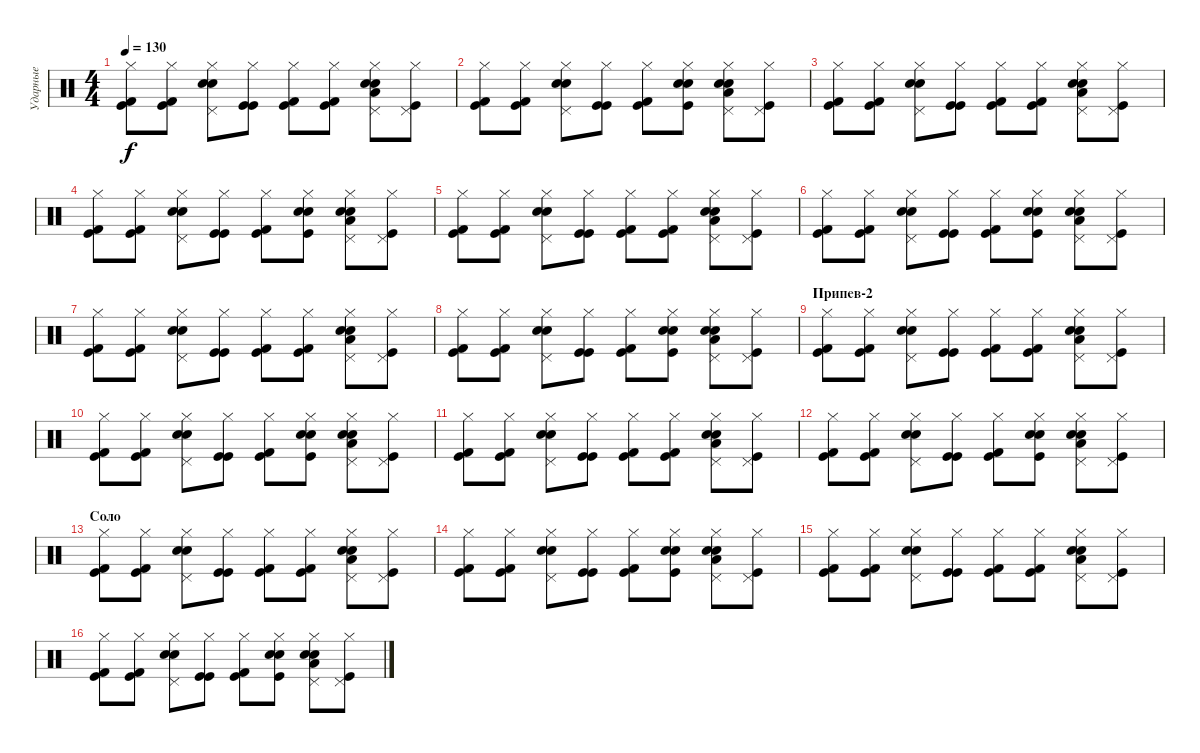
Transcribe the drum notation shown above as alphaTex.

\track ("Ударные" "Ударные") {instrument percussion}
\staff {score}
\articulation defaults
\ts (4 4)
\tempo 130
\clef neutral
\ks c
("Kick (hit)" "Kick (hit) 2" "Hi-Hat (closed)").8{dy f} ("Kick (hit)" "Kick (hit) 2" "Hi-Hat (closed)").8 ("Electric Snare (hit)" "Pedal Hi-Hat (hit)" "Hi-Hat (closed)" "Snare (hit) 2").8 ("Kick (hit)" "Kick (hit)" "Hi-Hat (closed)").8 ("Kick (hit)" "Kick (hit) 2" "Hi-Hat (closed)").8 ("Kick (hit)" "Kick (hit) 2" "Hi-Hat (closed)").8 ("Low Tom (hit)" "Electric Snare (hit)" "Pedal Hi-Hat (hit)" "Hi-Hat (closed)" "Snare (hit) 2").8 ("Pedal Hi-Hat (hit)" "Kick (hit)" "Hi-Hat (closed)").8 |
("Kick (hit)" "Kick (hit) 2" "Hi-Hat (closed)").8 ("Kick (hit)" "Kick (hit) 2" "Hi-Hat (closed)").8 ("Snare (hit) 2" "Electric Snare (hit)" "Pedal Hi-Hat (hit)" "Hi-Hat (closed)").8 ("Kick (hit)" "Kick (hit)" "Hi-Hat (closed)").8 ("Kick (hit)" "Kick (hit) 2" "Hi-Hat (closed)").8 ("Kick (hit)" "Electric Snare (hit)" "Hi-Hat (closed)" "Snare (hit) 2").8 ("Low Tom (hit)" "Electric Snare (hit)" "Pedal Hi-Hat (hit)" "Hi-Hat (closed)" "Snare (hit) 2").8 ("Pedal Hi-Hat (hit)" "Kick (hit)" "Hi-Hat (closed)").8 |
("Kick (hit)" "Kick (hit) 2" "Hi-Hat (closed)").8 ("Kick (hit)" "Kick (hit) 2" "Hi-Hat (closed)").8 ("Electric Snare (hit)" "Pedal Hi-Hat (hit)" "Hi-Hat (closed)" "Snare (hit) 2").8 ("Kick (hit)" "Kick (hit)" "Hi-Hat (closed)").8 ("Kick (hit)" "Kick (hit) 2" "Hi-Hat (closed)").8 ("Kick (hit)" "Kick (hit) 2" "Hi-Hat (closed)").8 ("Low Tom (hit)" "Electric Snare (hit)" "Pedal Hi-Hat (hit)" "Hi-Hat (closed)" "Snare (hit) 2").8 ("Pedal Hi-Hat (hit)" "Kick (hit)" "Hi-Hat (closed)").8 |
("Kick (hit)" "Kick (hit) 2" "Hi-Hat (closed)").8 ("Kick (hit)" "Kick (hit) 2" "Hi-Hat (closed)").8 ("Snare (hit) 2" "Electric Snare (hit)" "Pedal Hi-Hat (hit)" "Hi-Hat (closed)").8 ("Kick (hit)" "Kick (hit)" "Hi-Hat (closed)").8 ("Kick (hit)" "Kick (hit) 2" "Hi-Hat (closed)").8 ("Kick (hit)" "Electric Snare (hit)" "Hi-Hat (closed)" "Snare (hit) 2").8 ("Low Tom (hit)" "Electric Snare (hit)" "Pedal Hi-Hat (hit)" "Hi-Hat (closed)" "Snare (hit) 2").8 ("Pedal Hi-Hat (hit)" "Kick (hit)" "Hi-Hat (closed)").8 |
("Kick (hit)" "Kick (hit) 2" "Hi-Hat (closed)").8 ("Kick (hit)" "Kick (hit) 2" "Hi-Hat (closed)").8 ("Electric Snare (hit)" "Pedal Hi-Hat (hit)" "Hi-Hat (closed)" "Snare (hit) 2").8 ("Kick (hit)" "Kick (hit)" "Hi-Hat (closed)").8 ("Kick (hit)" "Kick (hit) 2" "Hi-Hat (closed)").8 ("Kick (hit)" "Kick (hit) 2" "Hi-Hat (closed)").8 ("Low Tom (hit)" "Electric Snare (hit)" "Pedal Hi-Hat (hit)" "Hi-Hat (closed)" "Snare (hit) 2").8 ("Pedal Hi-Hat (hit)" "Kick (hit)" "Hi-Hat (closed)").8 |
("Kick (hit)" "Kick (hit) 2" "Hi-Hat (closed)").8 ("Kick (hit)" "Kick (hit) 2" "Hi-Hat (closed)").8 ("Snare (hit) 2" "Electric Snare (hit)" "Pedal Hi-Hat (hit)" "Hi-Hat (closed)").8 ("Kick (hit)" "Kick (hit)" "Hi-Hat (closed)").8 ("Kick (hit)" "Kick (hit) 2" "Hi-Hat (closed)").8 ("Kick (hit)" "Electric Snare (hit)" "Hi-Hat (closed)" "Snare (hit) 2").8 ("Low Tom (hit)" "Electric Snare (hit)" "Pedal Hi-Hat (hit)" "Hi-Hat (closed)" "Snare (hit) 2").8 ("Pedal Hi-Hat (hit)" "Kick (hit)" "Hi-Hat (closed)").8 |
("Kick (hit)" "Kick (hit) 2" "Hi-Hat (closed)").8 ("Kick (hit)" "Kick (hit) 2" "Hi-Hat (closed)").8 ("Electric Snare (hit)" "Pedal Hi-Hat (hit)" "Hi-Hat (closed)" "Snare (hit) 2").8 ("Kick (hit)" "Kick (hit)" "Hi-Hat (closed)").8 ("Kick (hit)" "Kick (hit) 2" "Hi-Hat (closed)").8 ("Kick (hit)" "Kick (hit) 2" "Hi-Hat (closed)").8 ("Low Tom (hit)" "Electric Snare (hit)" "Pedal Hi-Hat (hit)" "Hi-Hat (closed)" "Snare (hit) 2").8 ("Pedal Hi-Hat (hit)" "Kick (hit)" "Hi-Hat (closed)").8 |
("Kick (hit)" "Kick (hit) 2" "Hi-Hat (closed)").8 ("Kick (hit)" "Kick (hit) 2" "Hi-Hat (closed)").8 ("Snare (hit) 2" "Electric Snare (hit)" "Pedal Hi-Hat (hit)" "Hi-Hat (closed)").8 ("Kick (hit)" "Kick (hit)" "Hi-Hat (closed)").8 ("Kick (hit)" "Kick (hit) 2" "Hi-Hat (closed)").8 ("Kick (hit)" "Electric Snare (hit)" "Hi-Hat (closed)" "Snare (hit) 2").8 ("Low Tom (hit)" "Electric Snare (hit)" "Pedal Hi-Hat (hit)" "Hi-Hat (closed)" "Snare (hit) 2").8 ("Pedal Hi-Hat (hit)" "Kick (hit)" "Hi-Hat (closed)").8 |
\section ("" "Припев-2")
("Kick (hit)" "Kick (hit) 2" "Hi-Hat (closed)").8 ("Kick (hit)" "Kick (hit) 2" "Hi-Hat (closed)").8 ("Electric Snare (hit)" "Pedal Hi-Hat (hit)" "Hi-Hat (closed)" "Snare (hit) 2").8 ("Kick (hit)" "Kick (hit)" "Hi-Hat (closed)").8 ("Kick (hit)" "Kick (hit) 2" "Hi-Hat (closed)").8 ("Kick (hit)" "Kick (hit) 2" "Hi-Hat (closed)").8 ("Low Tom (hit)" "Electric Snare (hit)" "Pedal Hi-Hat (hit)" "Hi-Hat (closed)" "Snare (hit) 2").8 ("Pedal Hi-Hat (hit)" "Kick (hit)" "Hi-Hat (closed)").8 |
("Kick (hit)" "Kick (hit) 2" "Hi-Hat (closed)").8 ("Kick (hit)" "Kick (hit) 2" "Hi-Hat (closed)").8 ("Snare (hit) 2" "Electric Snare (hit)" "Pedal Hi-Hat (hit)" "Hi-Hat (closed)").8 ("Kick (hit)" "Kick (hit)" "Hi-Hat (closed)").8 ("Kick (hit)" "Kick (hit) 2" "Hi-Hat (closed)").8 ("Kick (hit)" "Electric Snare (hit)" "Hi-Hat (closed)" "Snare (hit) 2").8 ("Low Tom (hit)" "Electric Snare (hit)" "Pedal Hi-Hat (hit)" "Hi-Hat (closed)" "Snare (hit) 2").8 ("Pedal Hi-Hat (hit)" "Kick (hit)" "Hi-Hat (closed)").8 |
("Kick (hit)" "Kick (hit) 2" "Hi-Hat (closed)").8 ("Kick (hit)" "Kick (hit) 2" "Hi-Hat (closed)").8 ("Electric Snare (hit)" "Pedal Hi-Hat (hit)" "Hi-Hat (closed)" "Snare (hit) 2").8 ("Kick (hit)" "Kick (hit)" "Hi-Hat (closed)").8 ("Kick (hit)" "Kick (hit) 2" "Hi-Hat (closed)").8 ("Kick (hit)" "Kick (hit) 2" "Hi-Hat (closed)").8 ("Low Tom (hit)" "Electric Snare (hit)" "Pedal Hi-Hat (hit)" "Hi-Hat (closed)" "Snare (hit) 2").8 ("Pedal Hi-Hat (hit)" "Kick (hit)" "Hi-Hat (closed)").8 |
("Kick (hit)" "Kick (hit) 2" "Hi-Hat (closed)").8 ("Kick (hit)" "Kick (hit) 2" "Hi-Hat (closed)").8 ("Snare (hit) 2" "Electric Snare (hit)" "Pedal Hi-Hat (hit)" "Hi-Hat (closed)").8 ("Kick (hit)" "Kick (hit)" "Hi-Hat (closed)").8 ("Kick (hit)" "Kick (hit) 2" "Hi-Hat (closed)").8 ("Kick (hit)" "Electric Snare (hit)" "Hi-Hat (closed)" "Snare (hit) 2").8 ("Low Tom (hit)" "Electric Snare (hit)" "Pedal Hi-Hat (hit)" "Hi-Hat (closed)" "Snare (hit) 2").8 ("Pedal Hi-Hat (hit)" "Kick (hit)" "Hi-Hat (closed)").8 |
\section ("" "Соло ")
("Kick (hit)" "Kick (hit) 2" "Hi-Hat (closed)").8 ("Kick (hit)" "Kick (hit) 2" "Hi-Hat (closed)").8 ("Electric Snare (hit)" "Pedal Hi-Hat (hit)" "Hi-Hat (closed)" "Snare (hit) 2").8 ("Kick (hit)" "Kick (hit)" "Hi-Hat (closed)").8 ("Kick (hit)" "Kick (hit) 2" "Hi-Hat (closed)").8 ("Kick (hit)" "Kick (hit) 2" "Hi-Hat (closed)").8 ("Low Tom (hit)" "Electric Snare (hit)" "Pedal Hi-Hat (hit)" "Hi-Hat (closed)" "Snare (hit) 2").8 ("Pedal Hi-Hat (hit)" "Kick (hit)" "Hi-Hat (closed)").8 |
("Kick (hit)" "Kick (hit) 2" "Hi-Hat (closed)").8 ("Kick (hit)" "Kick (hit) 2" "Hi-Hat (closed)").8 ("Snare (hit) 2" "Electric Snare (hit)" "Pedal Hi-Hat (hit)" "Hi-Hat (closed)").8 ("Kick (hit)" "Kick (hit)" "Hi-Hat (closed)").8 ("Kick (hit)" "Kick (hit) 2" "Hi-Hat (closed)").8 ("Kick (hit)" "Electric Snare (hit)" "Hi-Hat (closed)" "Snare (hit) 2").8 ("Low Tom (hit)" "Electric Snare (hit)" "Pedal Hi-Hat (hit)" "Hi-Hat (closed)" "Snare (hit) 2").8 ("Pedal Hi-Hat (hit)" "Kick (hit)" "Hi-Hat (closed)").8 |
("Kick (hit)" "Kick (hit) 2" "Hi-Hat (closed)").8 ("Kick (hit)" "Kick (hit) 2" "Hi-Hat (closed)").8 ("Electric Snare (hit)" "Pedal Hi-Hat (hit)" "Hi-Hat (closed)" "Snare (hit) 2").8 ("Kick (hit)" "Kick (hit)" "Hi-Hat (closed)").8 ("Kick (hit)" "Kick (hit) 2" "Hi-Hat (closed)").8 ("Kick (hit)" "Kick (hit) 2" "Hi-Hat (closed)").8 ("Low Tom (hit)" "Electric Snare (hit)" "Pedal Hi-Hat (hit)" "Hi-Hat (closed)" "Snare (hit) 2").8 ("Pedal Hi-Hat (hit)" "Kick (hit)" "Hi-Hat (closed)").8 |
("Kick (hit)" "Kick (hit) 2" "Hi-Hat (closed)").8 ("Kick (hit)" "Kick (hit) 2" "Hi-Hat (closed)").8 ("Snare (hit) 2" "Electric Snare (hit)" "Pedal Hi-Hat (hit)" "Hi-Hat (closed)").8 ("Kick (hit)" "Kick (hit)" "Hi-Hat (closed)").8 ("Kick (hit)" "Kick (hit) 2" "Hi-Hat (closed)").8 ("Kick (hit)" "Electric Snare (hit)" "Hi-Hat (closed)" "Snare (hit) 2").8 ("Low Tom (hit)" "Electric Snare (hit)" "Pedal Hi-Hat (hit)" "Hi-Hat (closed)" "Snare (hit) 2").8 ("Pedal Hi-Hat (hit)" "Kick (hit)" "Hi-Hat (closed)").8
